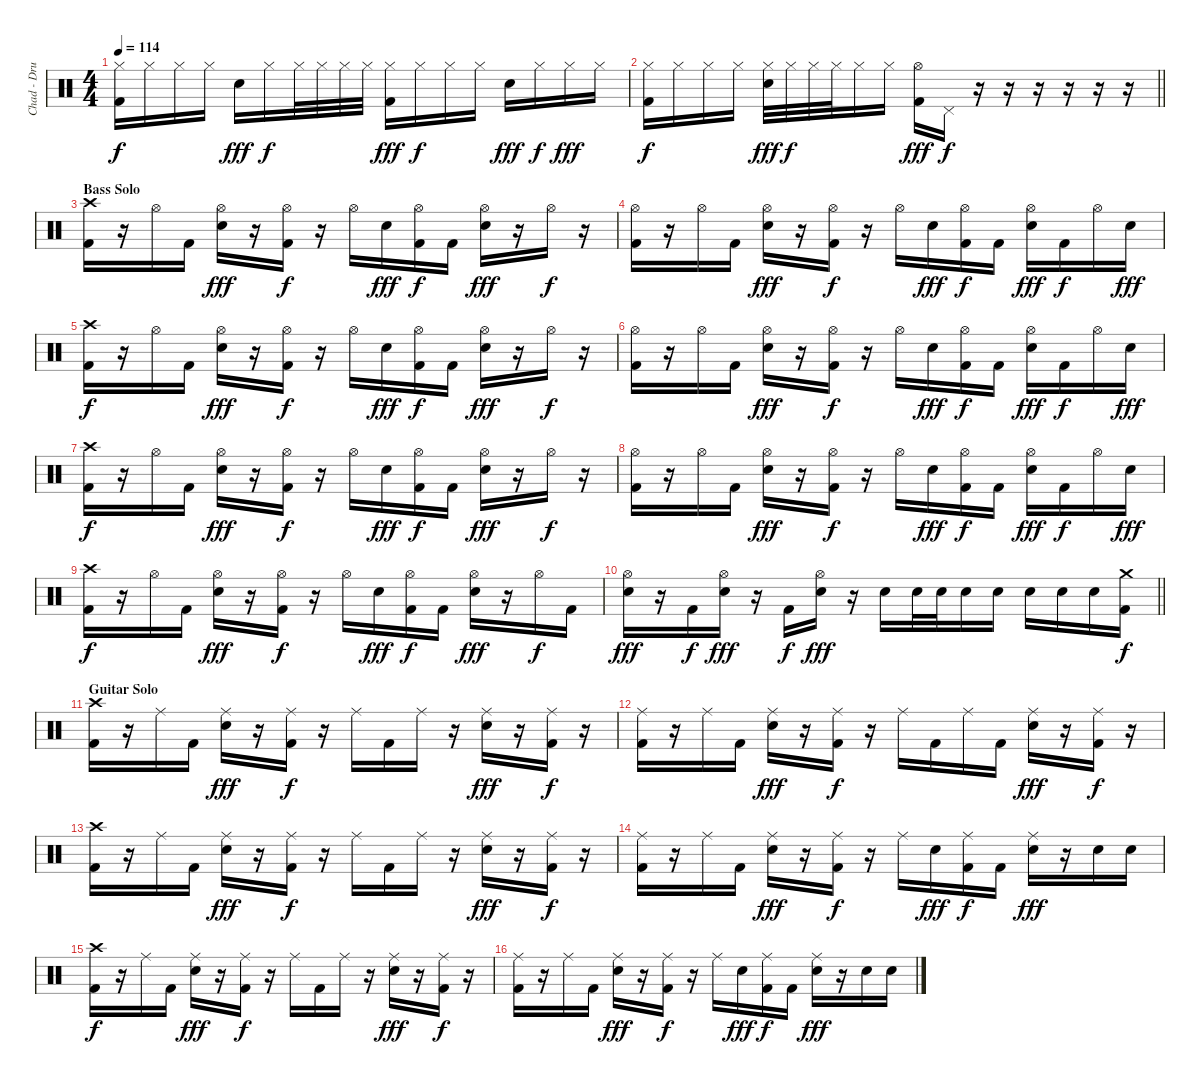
\track ("Chad - Drums" "Chad - Dru") {instrument percussion}
\staff {score}
\articulation defaults
\ts (4 4)
\tempo 114
\clef neutral
\ks c
("Hi-Hat (closed)" "Kick (hit) 2").16{dy f} "Hi-Hat (closed)".16 "Hi-Hat (closed)".16 "Hi-Hat (closed)".16 "Electric Snare (hit)".16{dy fff} "Hi-Hat (closed)".16{dy f} "Hi-Hat (closed)".32 "Hi-Hat (closed)".32 "Hi-Hat (closed)".32 "Hi-Hat (closed)".32 ("Hi-Hat (closed)" "Kick (hit) 2").16{dy fff} "Hi-Hat (closed)".16{dy f} "Hi-Hat (closed)".16 "Hi-Hat (closed)".16 "Electric Snare (hit)".16{dy fff} "Hi-Hat (closed)".16{dy f} "Hi-Hat (closed)".16{dy fff} "Hi-Hat (closed)".16 |
\barLineRight lightlight
("Hi-Hat (closed)" "Kick (hit) 2").16{dy f} "Hi-Hat (closed)".16 "Hi-Hat (closed)".16 "Hi-Hat (closed)".16 ("Hi-Hat (closed)" "Electric Snare (hit)").32{dy fff} "Hi-Hat (closed)".32{dy f} "Hi-Hat (closed)".32 "Hi-Hat (closed)".32 "Hi-Hat (closed)".16 "Hi-Hat (closed)".16 ("Hi-Hat (open)" "Kick (hit) 2").16{dy fff} "Pedal Hi-Hat (hit)".16{dy f} r.16 r.16 r.16 r.16 r.16 r.16 |
\section ("" "Bass Solo")
("Crash high (hit)" "Kick (hit) 2").16 r.16 "Hi-Hat (open)".16 "Kick (hit) 2".16 ("Hi-Hat (open)" "Electric Snare (hit)").16{dy fff} r.16 ("Hi-Hat (open)" "Kick (hit) 2").16{dy f} r.16 "Hi-Hat (open)".16 "Electric Snare (hit)".16{dy fff} ("Hi-Hat (open)" "Kick (hit) 2").16{dy f} "Kick (hit) 2".16 ("Hi-Hat (open)" "Electric Snare (hit)").16{dy fff} r.16 "Hi-Hat (open)".16{dy f} r.16 |
("Hi-Hat (open)" "Kick (hit) 2").16 r.16 "Hi-Hat (open)".16 "Kick (hit) 2".16 ("Hi-Hat (open)" "Electric Snare (hit)").16{dy fff} r.16 ("Hi-Hat (open)" "Kick (hit) 2").16{dy f} r.16 "Hi-Hat (open)".16 "Electric Snare (hit)".16{dy fff} ("Hi-Hat (open)" "Kick (hit) 2").16{dy f} "Kick (hit) 2".16 ("Hi-Hat (open)" "Electric Snare (hit)").16{dy fff} "Kick (hit) 2".16{dy f} "Hi-Hat (open)".16 "Electric Snare (hit)".16{dy fff} |
("Crash high (hit)" "Kick (hit) 2").16{dy f} r.16 "Hi-Hat (open)".16 "Kick (hit) 2".16 ("Hi-Hat (open)" "Electric Snare (hit)").16{dy fff} r.16 ("Hi-Hat (open)" "Kick (hit) 2").16{dy f} r.16 "Hi-Hat (open)".16 "Electric Snare (hit)".16{dy fff} ("Hi-Hat (open)" "Kick (hit) 2").16{dy f} "Kick (hit) 2".16 ("Hi-Hat (open)" "Electric Snare (hit)").16{dy fff} r.16 "Hi-Hat (open)".16{dy f} r.16 |
("Hi-Hat (open)" "Kick (hit) 2").16 r.16 "Hi-Hat (open)".16 "Kick (hit) 2".16 ("Hi-Hat (open)" "Electric Snare (hit)").16{dy fff} r.16 ("Hi-Hat (open)" "Kick (hit) 2").16{dy f} r.16 "Hi-Hat (open)".16 "Electric Snare (hit)".16{dy fff} ("Hi-Hat (open)" "Kick (hit) 2").16{dy f} "Kick (hit) 2".16 ("Hi-Hat (open)" "Electric Snare (hit)").16{dy fff} "Kick (hit) 2".16{dy f} "Hi-Hat (open)".16 "Electric Snare (hit)".16{dy fff} |
("Crash high (hit)" "Kick (hit) 2").16{dy f} r.16 "Hi-Hat (open)".16 "Kick (hit) 2".16 ("Hi-Hat (open)" "Electric Snare (hit)").16{dy fff} r.16 ("Hi-Hat (open)" "Kick (hit) 2").16{dy f} r.16 "Hi-Hat (open)".16 "Electric Snare (hit)".16{dy fff} ("Hi-Hat (open)" "Kick (hit) 2").16{dy f} "Kick (hit) 2".16 ("Hi-Hat (open)" "Electric Snare (hit)").16{dy fff} r.16 "Hi-Hat (open)".16{dy f} r.16 |
("Hi-Hat (open)" "Kick (hit) 2").16 r.16 "Hi-Hat (open)".16 "Kick (hit) 2".16 ("Hi-Hat (open)" "Electric Snare (hit)").16{dy fff} r.16 ("Hi-Hat (open)" "Kick (hit) 2").16{dy f} r.16 "Hi-Hat (open)".16 "Electric Snare (hit)".16{dy fff} ("Hi-Hat (open)" "Kick (hit) 2").16{dy f} "Kick (hit) 2".16 ("Hi-Hat (open)" "Electric Snare (hit)").16{dy fff} "Kick (hit) 2".16{dy f} "Hi-Hat (open)".16 "Electric Snare (hit)".16{dy fff} |
("Crash high (hit)" "Kick (hit) 2").16{dy f} r.16 "Hi-Hat (open)".16 "Kick (hit) 2".16 ("Hi-Hat (open)" "Electric Snare (hit)").16{dy fff} r.16 ("Hi-Hat (open)" "Kick (hit) 2").16{dy f} r.16 "Hi-Hat (open)".16 "Electric Snare (hit)".16{dy fff} ("Hi-Hat (open)" "Kick (hit) 2").16{dy f} "Kick (hit) 2".16 ("Hi-Hat (open)" "Electric Snare (hit)").16{dy fff} r.16 "Hi-Hat (open)".16{dy f} "Kick (hit) 2".16 |
\barLineRight lightlight
("Hi-Hat (open)" "Electric Snare (hit)").16{dy fff} r.16 "Kick (hit) 2".16{dy f} ("Hi-Hat (open)" "Electric Snare (hit)").16{dy fff} r.16 "Kick (hit) 2".16{dy f} ("Hi-Hat (open)" "Electric Snare (hit)").16{dy fff} r.16 "Electric Snare (hit)".16 "Electric Snare (hit)".32 "Electric Snare (hit)".32 "Electric Snare (hit)".16 "Electric Snare (hit)".16 "Electric Snare (hit)".16 "Electric Snare (hit)".16 "Electric Snare (hit)".16 ("Crash medium (hit)" "Kick (hit) 2").16{dy f} |
\section ("" "Guitar Solo")
("Crash high (hit)" "Kick (hit) 2").16 r.16 "Ride (middle)".16 "Kick (hit) 2".16 ("Ride (middle)" "Electric Snare (hit)").16{dy fff} r.16 ("Ride (middle)" "Kick (hit) 2").16{dy f} r.16 "Ride (middle)".16 "Kick (hit) 2".16 "Ride (middle)".16 r.16 ("Ride (middle)" "Electric Snare (hit)").16{dy fff} r.16 ("Ride (middle)" "Kick (hit) 2").16{dy f} r.16 |
("Ride (middle)" "Kick (hit) 2").16 r.16 "Ride (middle)".16 "Kick (hit) 2".16 ("Ride (middle)" "Electric Snare (hit)").16{dy fff} r.16 ("Ride (middle)" "Kick (hit) 2").16{dy f} r.16 "Ride (middle)".16 "Kick (hit) 2".16 "Ride (middle)".16 "Kick (hit) 2".16 ("Ride (middle)" "Electric Snare (hit)").16{dy fff} r.16 ("Ride (middle)" "Kick (hit) 2").16{dy f} r.16 |
("Crash high (hit)" "Kick (hit) 2").16 r.16 "Ride (middle)".16 "Kick (hit) 2".16 ("Ride (middle)" "Electric Snare (hit)").16{dy fff} r.16 ("Ride (middle)" "Kick (hit) 2").16{dy f} r.16 "Ride (middle)".16 "Kick (hit) 2".16 "Ride (middle)".16 r.16 ("Ride (middle)" "Electric Snare (hit)").16{dy fff} r.16 ("Ride (middle)" "Kick (hit) 2").16{dy f} r.16 |
("Ride (middle)" "Kick (hit) 2").16 r.16 "Ride (middle)".16 "Kick (hit) 2".16 ("Ride (middle)" "Electric Snare (hit)").16{dy fff} r.16 ("Ride (middle)" "Kick (hit) 2").16{dy f} r.16 "Ride (middle)".16 "Electric Snare (hit)".16{dy fff} ("Ride (middle)" "Kick (hit) 2").16{dy f} "Kick (hit) 2".16 ("Ride (middle)" "Electric Snare (hit)").16{dy fff} r.16 "Electric Snare (hit)".16 "Electric Snare (hit)".16 |
("Crash high (hit)" "Kick (hit) 2").16{dy f} r.16 "Ride (middle)".16 "Kick (hit) 2".16 ("Ride (middle)" "Electric Snare (hit)").16{dy fff} r.16 ("Ride (middle)" "Kick (hit) 2").16{dy f} r.16 "Ride (middle)".16 "Kick (hit) 2".16 "Ride (middle)".16 r.16 ("Ride (middle)" "Electric Snare (hit)").16{dy fff} r.16 ("Ride (middle)" "Kick (hit) 2").16{dy f} r.16 |
("Ride (middle)" "Kick (hit) 2").16 r.16 "Ride (middle)".16 "Kick (hit) 2".16 ("Ride (middle)" "Electric Snare (hit)").16{dy fff} r.16 ("Ride (middle)" "Kick (hit) 2").16{dy f} r.16 "Ride (middle)".16 "Electric Snare (hit)".16{dy fff} ("Ride (middle)" "Kick (hit) 2").16{dy f} "Kick (hit) 2".16 ("Ride (middle)" "Electric Snare (hit)").16{dy fff} r.16 "Electric Snare (hit)".16 "Electric Snare (hit)".16
